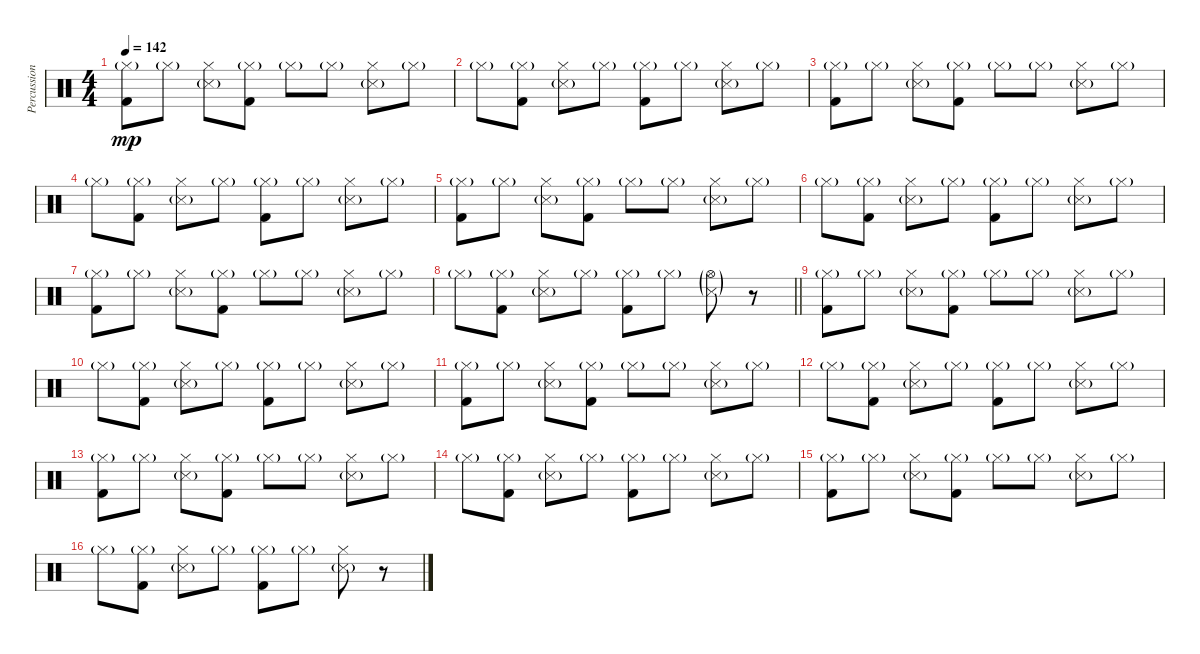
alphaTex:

\track ("Percussion" "Percussion") {instrument percussion}
\staff {score}
\articulation defaults
\ts (4 4)
\tempo 142
\clef neutral
\ks c
("Hi-Hat (closed)"{g} "Kick (hit) 2").8{dy mp} "Hi-Hat (closed)"{g}.8 ("Hi-Hat (closed)" "Snare (side stick) 3"{g}).8 ("Hi-Hat (closed)"{g} "Kick (hit) 2").8 "Hi-Hat (closed)"{g}.8 "Hi-Hat (closed)"{g}.8 ("Hi-Hat (closed)" "Snare (side stick) 3"{g}).8 "Hi-Hat (closed)"{g}.8 |
"Hi-Hat (closed)"{g}.8 ("Hi-Hat (closed)"{g} "Kick (hit) 2").8 ("Hi-Hat (closed)" "Snare (side stick) 3"{g}).8 "Hi-Hat (closed)"{g}.8 ("Hi-Hat (closed)"{g} "Kick (hit) 2").8 "Hi-Hat (closed)"{g}.8 ("Hi-Hat (closed)" "Snare (side stick) 3"{g}).8 "Hi-Hat (closed)"{g}.8 |
("Hi-Hat (closed)"{g} "Kick (hit) 2").8 "Hi-Hat (closed)"{g}.8 ("Hi-Hat (closed)" "Snare (side stick) 3"{g}).8 ("Hi-Hat (closed)"{g} "Kick (hit) 2").8 "Hi-Hat (closed)"{g}.8 "Hi-Hat (closed)"{g}.8 ("Hi-Hat (closed)" "Snare (side stick) 3"{g}).8 "Hi-Hat (closed)"{g}.8 |
"Hi-Hat (closed)"{g}.8 ("Hi-Hat (closed)"{g} "Kick (hit) 2").8 ("Hi-Hat (closed)" "Snare (side stick) 3"{g}).8 "Hi-Hat (closed)"{g}.8 ("Hi-Hat (closed)"{g} "Kick (hit) 2").8 "Hi-Hat (closed)"{g}.8 ("Hi-Hat (closed)" "Snare (side stick) 3"{g}).8 "Hi-Hat (closed)"{g}.8 |
("Hi-Hat (closed)"{g} "Kick (hit) 2").8 "Hi-Hat (closed)"{g}.8 ("Hi-Hat (closed)" "Snare (side stick) 3"{g}).8 ("Hi-Hat (closed)"{g} "Kick (hit) 2").8 "Hi-Hat (closed)"{g}.8 "Hi-Hat (closed)"{g}.8 ("Hi-Hat (closed)" "Snare (side stick) 3"{g}).8 "Hi-Hat (closed)"{g}.8 |
"Hi-Hat (closed)"{g}.8 ("Hi-Hat (closed)"{g} "Kick (hit) 2").8 ("Hi-Hat (closed)" "Snare (side stick) 3"{g}).8 "Hi-Hat (closed)"{g}.8 ("Hi-Hat (closed)"{g} "Kick (hit) 2").8 "Hi-Hat (closed)"{g}.8 ("Hi-Hat (closed)" "Snare (side stick) 3"{g}).8 "Hi-Hat (closed)"{g}.8 |
("Hi-Hat (closed)"{g} "Kick (hit) 2").8 "Hi-Hat (closed)"{g}.8 ("Hi-Hat (closed)" "Snare (side stick) 3"{g}).8 ("Hi-Hat (closed)"{g} "Kick (hit) 2").8 "Hi-Hat (closed)"{g}.8 "Hi-Hat (closed)"{g}.8 ("Hi-Hat (closed)" "Snare (side stick) 3"{g}).8 "Hi-Hat (closed)"{g}.8 |
\barLineRight lightlight "Hi-Hat (closed)"{g}.8
("Hi-Hat (closed)"{g} "Kick (hit) 2").8 ("Hi-Hat (closed)" "Snare (side stick) 3"{g}).8 "Hi-Hat (closed)"{g}.8 ("Hi-Hat (closed)"{g} "Kick (hit) 2").8 "Hi-Hat (closed)"{g}.8 ("Hi-Hat (open)"{g} "Snare (side stick) 3"{g}).8 r.8 |
("Hi-Hat (closed)"{g} "Kick (hit) 2").8 "Hi-Hat (closed)"{g}.8 ("Hi-Hat (closed)" "Snare (side stick) 3"{g}).8 ("Hi-Hat (closed)"{g} "Kick (hit) 2").8 "Hi-Hat (closed)"{g}.8 "Hi-Hat (closed)"{g}.8 ("Hi-Hat (closed)" "Snare (side stick) 3"{g}).8 "Hi-Hat (closed)"{g}.8 |
"Hi-Hat (closed)"{g}.8 ("Hi-Hat (closed)"{g} "Kick (hit) 2").8 ("Hi-Hat (closed)" "Snare (side stick) 3"{g}).8 "Hi-Hat (closed)"{g}.8 ("Hi-Hat (closed)"{g} "Kick (hit) 2").8 "Hi-Hat (closed)"{g}.8 ("Hi-Hat (closed)" "Snare (side stick) 3"{g}).8 "Hi-Hat (closed)"{g}.8 |
("Hi-Hat (closed)"{g} "Kick (hit) 2").8 "Hi-Hat (closed)"{g}.8 ("Hi-Hat (closed)" "Snare (side stick) 3"{g}).8 ("Hi-Hat (closed)"{g} "Kick (hit) 2").8 "Hi-Hat (closed)"{g}.8 "Hi-Hat (closed)"{g}.8 ("Hi-Hat (closed)" "Snare (side stick) 3"{g}).8 "Hi-Hat (closed)"{g}.8 |
"Hi-Hat (closed)"{g}.8 ("Hi-Hat (closed)"{g} "Kick (hit) 2").8 ("Hi-Hat (closed)" "Snare (side stick) 3"{g}).8 "Hi-Hat (closed)"{g}.8 ("Hi-Hat (closed)"{g} "Kick (hit) 2").8 "Hi-Hat (closed)"{g}.8 ("Hi-Hat (closed)" "Snare (side stick) 3"{g}).8 "Hi-Hat (closed)"{g}.8 |
("Hi-Hat (closed)"{g} "Kick (hit) 2").8 "Hi-Hat (closed)"{g}.8 ("Hi-Hat (closed)" "Snare (side stick) 3"{g}).8 ("Hi-Hat (closed)"{g} "Kick (hit) 2").8 "Hi-Hat (closed)"{g}.8 "Hi-Hat (closed)"{g}.8 ("Hi-Hat (closed)" "Snare (side stick) 3"{g}).8 "Hi-Hat (closed)"{g}.8 |
"Hi-Hat (closed)"{g}.8 ("Hi-Hat (closed)"{g} "Kick (hit) 2").8 ("Hi-Hat (closed)" "Snare (side stick) 3"{g}).8 "Hi-Hat (closed)"{g}.8 ("Hi-Hat (closed)"{g} "Kick (hit) 2").8 "Hi-Hat (closed)"{g}.8 ("Hi-Hat (closed)" "Snare (side stick) 3"{g}).8 "Hi-Hat (closed)"{g}.8 |
("Hi-Hat (closed)"{g} "Kick (hit) 2").8 "Hi-Hat (closed)"{g}.8 ("Hi-Hat (closed)" "Snare (side stick) 3"{g}).8 ("Hi-Hat (closed)"{g} "Kick (hit) 2").8 "Hi-Hat (closed)"{g}.8 "Hi-Hat (closed)"{g}.8 ("Hi-Hat (closed)" "Snare (side stick) 3"{g}).8 "Hi-Hat (closed)"{g}.8 |
"Hi-Hat (closed)"{g}.8 ("Hi-Hat (closed)"{g} "Kick (hit) 2").8 ("Hi-Hat (closed)" "Snare (side stick) 3"{g}).8 "Hi-Hat (closed)"{g}.8 ("Hi-Hat (closed)"{g} "Kick (hit) 2").8 "Hi-Hat (closed)"{g}.8 ("Hi-Hat (closed)" "Snare (side stick) 3"{g}).8 r.8
